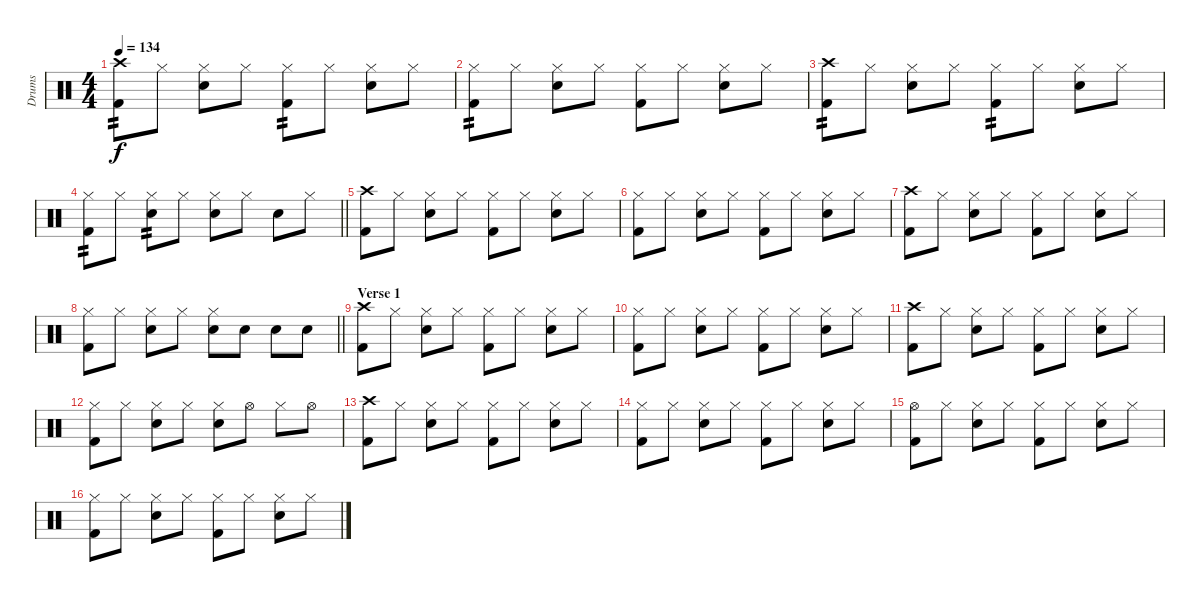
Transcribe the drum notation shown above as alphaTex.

\track ("Drums" "Drums") {instrument percussion}
\staff {score}
\articulation defaults
\ts (4 4)
\tempo 134
\clef neutral
\ks c
("Crash high (hit)" "Kick (hit) 2").8{tp 2 dy f} "Hi-Hat (closed)".8 ("Hi-Hat (closed)" "Snare (hit) 2").8 "Hi-Hat (closed)".8 ("Hi-Hat (closed)" "Kick (hit) 2").8{tp 2} "Hi-Hat (closed)".8 ("Hi-Hat (closed)" "Snare (hit) 2").8 "Hi-Hat (closed)".8 |
("Hi-Hat (closed)" "Kick (hit) 2").8{tp 2} "Hi-Hat (closed)".8 ("Hi-Hat (closed)" "Snare (hit) 2").8 "Hi-Hat (closed)".8 ("Hi-Hat (closed)" "Kick (hit) 2").8 "Hi-Hat (closed)".8 ("Hi-Hat (closed)" "Snare (hit) 2").8 "Hi-Hat (closed)".8 |
("Crash high (hit)" "Kick (hit) 2").8{tp 2} "Hi-Hat (closed)".8 ("Hi-Hat (closed)" "Snare (hit) 2").8 "Hi-Hat (closed)".8 ("Hi-Hat (closed)" "Kick (hit) 2").8{tp 2} "Hi-Hat (closed)".8 ("Hi-Hat (closed)" "Snare (hit) 2").8 "Hi-Hat (closed)".8 |
\barLineRight lightlight
("Hi-Hat (closed)" "Kick (hit) 2").8{tp 2} "Hi-Hat (closed)".8 ("Hi-Hat (closed)" "Snare (hit) 2").8{tp 2} "Hi-Hat (closed)".8 ("Hi-Hat (closed)" "Snare (hit) 2").8 "Hi-Hat (closed)".8 "Snare (hit) 2".8 "Hi-Hat (closed)".8 |
("Crash high (hit)" "Kick (hit) 2").8 "Hi-Hat (closed)".8 ("Hi-Hat (closed)" "Snare (hit) 2").8 "Hi-Hat (closed)".8 ("Hi-Hat (closed)" "Kick (hit) 2").8 "Hi-Hat (closed)".8 ("Hi-Hat (closed)" "Snare (hit) 2").8 "Hi-Hat (closed)".8 |
("Hi-Hat (closed)" "Kick (hit) 2").8 "Hi-Hat (closed)".8 ("Hi-Hat (closed)" "Snare (hit) 2").8 "Hi-Hat (closed)".8 ("Hi-Hat (closed)" "Kick (hit) 2").8 "Hi-Hat (closed)".8 ("Hi-Hat (closed)" "Snare (hit) 2").8 "Hi-Hat (closed)".8 |
("Crash high (hit)" "Kick (hit) 2").8 "Hi-Hat (closed)".8 ("Hi-Hat (closed)" "Snare (hit) 2").8 "Hi-Hat (closed)".8 ("Hi-Hat (closed)" "Kick (hit) 2").8 "Hi-Hat (closed)".8 ("Hi-Hat (closed)" "Snare (hit) 2").8 "Hi-Hat (closed)".8 |
\barLineRight lightlight
("Hi-Hat (closed)" "Kick (hit) 2").8 "Hi-Hat (closed)".8 ("Hi-Hat (closed)" "Snare (hit) 2").8 "Hi-Hat (closed)".8 ("Hi-Hat (closed)" "Snare (hit) 2").8 "Snare (hit) 2".8 "Snare (hit) 2".8 "Snare (hit) 2".8 |
\section ("" "Verse 1")
("Crash high (hit)" "Kick (hit) 2").8 "Hi-Hat (closed)".8 ("Hi-Hat (closed)" "Snare (hit) 2").8 "Hi-Hat (closed)".8 ("Hi-Hat (closed)" "Kick (hit) 2").8 "Hi-Hat (closed)".8 ("Hi-Hat (closed)" "Snare (hit) 2").8 "Hi-Hat (closed)".8 |
("Hi-Hat (closed)" "Kick (hit) 2").8 "Hi-Hat (closed)".8 ("Hi-Hat (closed)" "Snare (hit) 2").8 "Hi-Hat (closed)".8 ("Hi-Hat (closed)" "Kick (hit) 2").8 "Hi-Hat (closed)".8 ("Hi-Hat (closed)" "Snare (hit) 2").8 "Hi-Hat (closed)".8 |
("Crash high (hit)" "Kick (hit) 2").8 "Hi-Hat (closed)".8 ("Hi-Hat (closed)" "Snare (hit) 2").8 "Hi-Hat (closed)".8 ("Hi-Hat (closed)" "Kick (hit) 2").8 "Hi-Hat (closed)".8 ("Hi-Hat (closed)" "Snare (hit) 2").8 "Hi-Hat (closed)".8 |
("Hi-Hat (closed)" "Kick (hit) 2").8 "Hi-Hat (closed)".8 ("Hi-Hat (closed)" "Snare (hit) 2").8 "Hi-Hat (closed)".8 ("Hi-Hat (closed)" "Snare (hit) 2").8 "Hi-Hat (open)".8 "Hi-Hat (closed)".8 "Hi-Hat (open)".8 |
("Crash high (hit)" "Kick (hit) 2").8 "Hi-Hat (closed)".8 ("Hi-Hat (closed)" "Snare (hit) 2").8 "Hi-Hat (closed)".8 ("Hi-Hat (closed)" "Kick (hit) 2").8 "Hi-Hat (closed)".8 ("Hi-Hat (closed)" "Snare (hit) 2").8 "Hi-Hat (closed)".8 |
("Hi-Hat (closed)" "Kick (hit) 2").8 "Hi-Hat (closed)".8 ("Hi-Hat (closed)" "Snare (hit) 2").8 "Hi-Hat (closed)".8 ("Hi-Hat (closed)" "Kick (hit) 2").8 "Hi-Hat (closed)".8 ("Hi-Hat (closed)" "Snare (hit) 2").8 "Hi-Hat (closed)".8 |
("Hi-Hat (open)" "Kick (hit) 2").8 "Hi-Hat (closed)".8 ("Hi-Hat (closed)" "Snare (hit) 2").8 "Hi-Hat (closed)".8 ("Hi-Hat (closed)" "Kick (hit) 2").8 "Hi-Hat (closed)".8 ("Hi-Hat (closed)" "Snare (hit) 2").8 "Hi-Hat (closed)".8 |
("Hi-Hat (closed)" "Kick (hit) 2").8 "Hi-Hat (closed)".8 ("Hi-Hat (closed)" "Snare (hit) 2").8 "Hi-Hat (closed)".8 ("Hi-Hat (closed)" "Kick (hit) 2").8 "Hi-Hat (closed)".8 ("Hi-Hat (closed)" "Snare (hit) 2").8 "Hi-Hat (closed)".8
